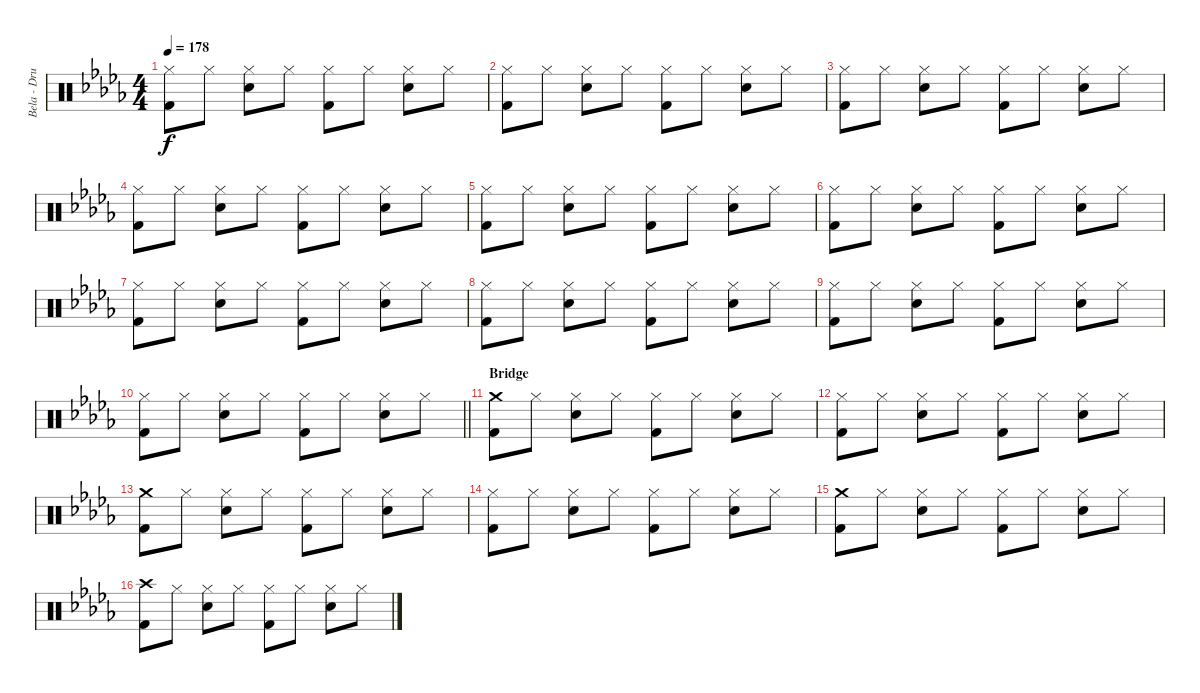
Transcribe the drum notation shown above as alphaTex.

\track ("Bela - Drums" "Bela - Dru") {instrument percussion}
\staff {score}
\articulation defaults
\ts (4 4)
\tempo 178
\clef neutral
\ks db
("Hi-Hat (closed)" "Kick (hit) 2").8{dy f} "Hi-Hat (closed)".8 ("Hi-Hat (closed)" "Snare (hit) 2").8 "Hi-Hat (closed)".8 ("Hi-Hat (closed)" "Kick (hit) 2").8 "Hi-Hat (closed)".8 ("Hi-Hat (closed)" "Snare (hit) 2").8 "Hi-Hat (closed)".8 |
("Hi-Hat (closed)" "Kick (hit) 2").8 "Hi-Hat (closed)".8 ("Hi-Hat (closed)" "Snare (hit) 2").8 "Hi-Hat (closed)".8 ("Hi-Hat (closed)" "Kick (hit) 2").8 "Hi-Hat (closed)".8 ("Hi-Hat (closed)" "Snare (hit) 2").8 "Hi-Hat (closed)".8 |
("Hi-Hat (closed)" "Kick (hit) 2").8 "Hi-Hat (closed)".8 ("Hi-Hat (closed)" "Snare (hit) 2").8 "Hi-Hat (closed)".8 ("Hi-Hat (closed)" "Kick (hit) 2").8 "Hi-Hat (closed)".8 ("Hi-Hat (closed)" "Snare (hit) 2").8 "Hi-Hat (closed)".8 |
("Hi-Hat (closed)" "Kick (hit) 2").8 "Hi-Hat (closed)".8 ("Hi-Hat (closed)" "Snare (hit) 2").8 "Hi-Hat (closed)".8 ("Hi-Hat (closed)" "Kick (hit) 2").8 "Hi-Hat (closed)".8 ("Hi-Hat (closed)" "Snare (hit) 2").8 "Hi-Hat (closed)".8 |
("Hi-Hat (closed)" "Kick (hit) 2").8 "Hi-Hat (closed)".8 ("Hi-Hat (closed)" "Snare (hit) 2").8 "Hi-Hat (closed)".8 ("Hi-Hat (closed)" "Kick (hit) 2").8 "Hi-Hat (closed)".8 ("Hi-Hat (closed)" "Snare (hit) 2").8 "Hi-Hat (closed)".8 |
("Hi-Hat (closed)" "Kick (hit) 2").8 "Hi-Hat (closed)".8 ("Hi-Hat (closed)" "Snare (hit) 2").8 "Hi-Hat (closed)".8 ("Hi-Hat (closed)" "Kick (hit) 2").8 "Hi-Hat (closed)".8 ("Hi-Hat (closed)" "Snare (hit) 2").8 "Hi-Hat (closed)".8 |
("Hi-Hat (closed)" "Kick (hit) 2").8 "Hi-Hat (closed)".8 ("Hi-Hat (closed)" "Snare (hit) 2").8 "Hi-Hat (closed)".8 ("Hi-Hat (closed)" "Kick (hit) 2").8 "Hi-Hat (closed)".8 ("Hi-Hat (closed)" "Snare (hit) 2").8 "Hi-Hat (closed)".8 |
("Hi-Hat (closed)" "Kick (hit) 2").8 "Hi-Hat (closed)".8 ("Hi-Hat (closed)" "Snare (hit) 2").8 "Hi-Hat (closed)".8 ("Hi-Hat (closed)" "Kick (hit) 2").8 "Hi-Hat (closed)".8 ("Hi-Hat (closed)" "Snare (hit) 2").8 "Hi-Hat (closed)".8 |
("Hi-Hat (closed)" "Kick (hit) 2").8 "Hi-Hat (closed)".8 ("Hi-Hat (closed)" "Snare (hit) 2").8 "Hi-Hat (closed)".8 ("Hi-Hat (closed)" "Kick (hit) 2").8 "Hi-Hat (closed)".8 ("Hi-Hat (closed)" "Snare (hit) 2").8 "Hi-Hat (closed)".8 |
\barLineRight lightlight
("Hi-Hat (closed)" "Kick (hit) 2").8 "Hi-Hat (closed)".8 ("Hi-Hat (closed)" "Snare (hit) 2").8 "Hi-Hat (closed)".8 ("Hi-Hat (closed)" "Kick (hit) 2").8 "Hi-Hat (closed)".8 ("Hi-Hat (closed)" "Snare (hit) 2").8 "Hi-Hat (closed)".8 |
\section ("" "Bridge")
("Crash medium (hit)" "Kick (hit) 2").8 "Hi-Hat (closed)".8 ("Hi-Hat (closed)" "Snare (hit) 2").8 "Hi-Hat (closed)".8 ("Hi-Hat (closed)" "Kick (hit) 2").8 "Hi-Hat (closed)".8 ("Hi-Hat (closed)" "Snare (hit) 2").8 "Hi-Hat (closed)".8 |
("Hi-Hat (closed)" "Kick (hit) 2").8 "Hi-Hat (closed)".8 ("Hi-Hat (closed)" "Snare (hit) 2").8 "Hi-Hat (closed)".8 ("Hi-Hat (closed)" "Kick (hit) 2").8 "Hi-Hat (closed)".8 ("Hi-Hat (closed)" "Snare (hit) 2").8 "Hi-Hat (closed)".8 |
("Crash medium (hit)" "Kick (hit) 2").8 "Hi-Hat (closed)".8 ("Hi-Hat (closed)" "Snare (hit) 2").8 "Hi-Hat (closed)".8 ("Hi-Hat (closed)" "Kick (hit) 2").8 "Hi-Hat (closed)".8 ("Hi-Hat (closed)" "Snare (hit) 2").8 "Hi-Hat (closed)".8 |
("Hi-Hat (closed)" "Kick (hit) 2").8 "Hi-Hat (closed)".8 ("Hi-Hat (closed)" "Snare (hit) 2").8 "Hi-Hat (closed)".8 ("Hi-Hat (closed)" "Kick (hit) 2").8 "Hi-Hat (closed)".8 ("Hi-Hat (closed)" "Snare (hit) 2").8 "Hi-Hat (closed)".8 |
("Crash medium (hit)" "Kick (hit) 2").8 "Hi-Hat (closed)".8 ("Hi-Hat (closed)" "Snare (hit) 2").8 "Hi-Hat (closed)".8 ("Hi-Hat (closed)" "Kick (hit) 2").8 "Hi-Hat (closed)".8 ("Hi-Hat (closed)" "Snare (hit) 2").8 "Hi-Hat (closed)".8 |
("Crash high (hit)" "Kick (hit) 2").8 "Hi-Hat (closed)".8 ("Hi-Hat (closed)" "Snare (hit) 2").8 "Hi-Hat (closed)".8 ("Hi-Hat (closed)" "Kick (hit) 2").8 "Hi-Hat (closed)".8 ("Hi-Hat (closed)" "Snare (hit) 2").8 "Hi-Hat (closed)".8
